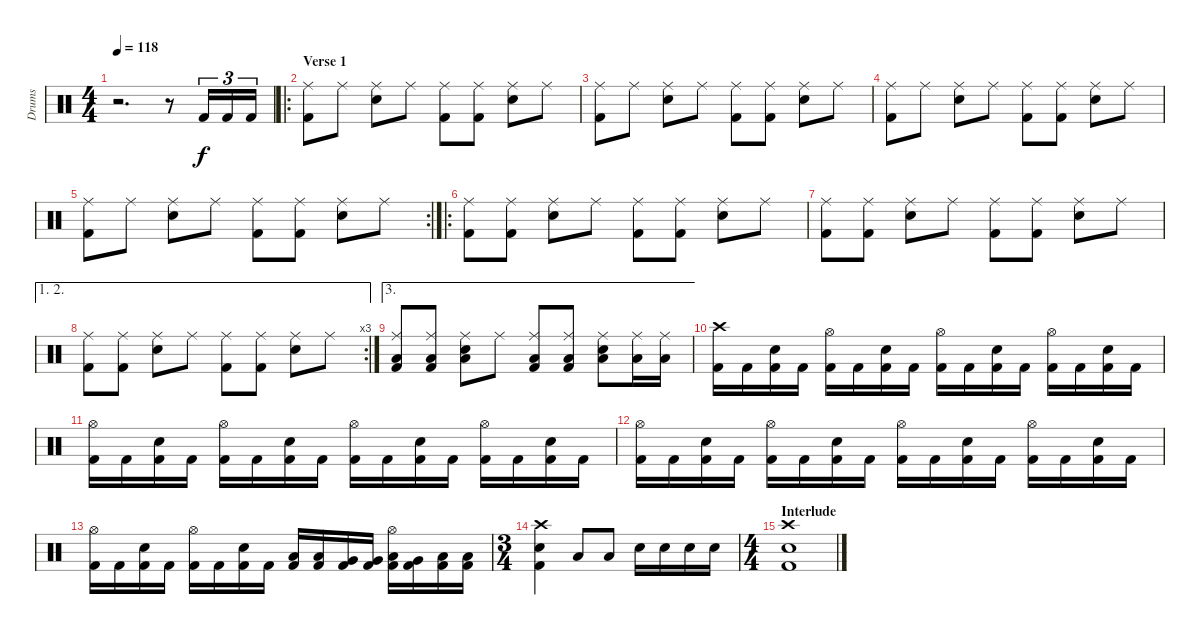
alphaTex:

\track ("Drums" "Drums") {instrument percussion}
\staff {score}
\articulation defaults
\ts (4 4)
\tempo 118
\clef neutral
\ks c
r.2{d dy f} r.8 "Kick (hit) 2".16{tu (3 2)} "Kick (hit) 2".16{tu (3 2)} "Kick (hit) 2".16{tu (3 2)} |
\ro
\section ("" "Verse 1")
("Ride (middle)" "Kick (hit) 2").8 "Ride (middle)".8 ("Ride (middle)" "Electric Snare (hit)").8 "Ride (middle)".8 ("Ride (middle)" "Kick (hit) 2").8 ("Ride (middle)" "Kick (hit) 2").8 ("Ride (middle)" "Electric Snare (hit)").8 "Ride (middle)".8 |
("Ride (middle)" "Kick (hit) 2").8 "Ride (middle)".8 ("Ride (middle)" "Electric Snare (hit)").8 "Ride (middle)".8 ("Ride (middle)" "Kick (hit) 2").8 ("Ride (middle)" "Kick (hit) 2").8 ("Ride (middle)" "Electric Snare (hit)").8 "Ride (middle)".8 |
("Ride (middle)" "Kick (hit) 2").8 "Ride (middle)".8 ("Ride (middle)" "Electric Snare (hit)").8 "Ride (middle)".8 ("Ride (middle)" "Kick (hit) 2").8 ("Ride (middle)" "Kick (hit) 2").8 ("Ride (middle)" "Electric Snare (hit)").8 "Ride (middle)".8 |
\rc 2
("Ride (middle)" "Kick (hit) 2").8 "Ride (middle)".8 ("Ride (middle)" "Electric Snare (hit)").8 "Ride (middle)".8 ("Ride (middle)" "Kick (hit) 2").8 ("Ride (middle)" "Kick (hit) 2").8 ("Ride (middle)" "Electric Snare (hit)").8 "Ride (middle)".8 |
\ro
("Ride (middle)" "Kick (hit) 2").8 ("Ride (middle)" "Kick (hit) 2").8 ("Ride (middle)" "Electric Snare (hit)").8 "Ride (middle)".8 ("Ride (middle)" "Kick (hit) 2").8 ("Ride (middle)" "Kick (hit) 2").8 ("Ride (middle)" "Electric Snare (hit)").8 "Ride (middle)".8 |
("Ride (middle)" "Kick (hit) 2").8 ("Ride (middle)" "Kick (hit) 2").8 ("Ride (middle)" "Electric Snare (hit)").8 "Ride (middle)".8 ("Ride (middle)" "Kick (hit) 2").8 ("Ride (middle)" "Kick (hit) 2").8 ("Ride (middle)" "Electric Snare (hit)").8 "Ride (middle)".8 |
\ae (1 2)
\rc 3
("Ride (middle)" "Kick (hit) 2").8 ("Ride (middle)" "Kick (hit) 2").8 ("Ride (middle)" "Electric Snare (hit)").8 "Ride (middle)".8 ("Ride (middle)" "Kick (hit) 2").8 ("Ride (middle)" "Kick (hit) 2").8 ("Ride (middle)" "Electric Snare (hit)").8 "Ride (middle)".8 |
\ae 3
("Ride (middle)" "Low Tom (hit)" "Kick (hit) 2").8 ("Ride (middle)" "Low Tom (hit)" "Kick (hit) 2").8 ("Ride (middle)" "Low Floor Tom (hit)" "Electric Snare (hit)").8 "Ride (middle)".8 ("Ride (middle)" "Low Tom (hit)" "Kick (hit) 2").8 ("Ride (middle)" "Low Tom (hit)" "Kick (hit) 2").8 ("Ride (middle)" "Low Floor Tom (hit)" "Electric Snare (hit)").8 ("Ride (middle)" "Low Floor Tom (hit)").16 ("Ride (middle)" "Low Floor Tom (hit)").16 |
("Kick (hit) 2" "Crash high (hit)").16 "Kick (hit) 2".16 ("Kick (hit) 2" "Electric Snare (hit)").16 "Kick (hit) 2".16 ("Kick (hit) 2" "Hi-Hat (open)").16 "Kick (hit) 2".16 ("Kick (hit) 2" "Electric Snare (hit)").16 "Kick (hit) 2".16 ("Kick (hit) 2" "Hi-Hat (open)").16 "Kick (hit) 2".16 ("Kick (hit) 2" "Electric Snare (hit)").16 "Kick (hit) 2".16 ("Kick (hit) 2" "Hi-Hat (open)").16 "Kick (hit) 2".16 ("Kick (hit) 2" "Electric Snare (hit)").16 "Kick (hit) 2".16 |
("Kick (hit) 2" "Hi-Hat (open)").16 "Kick (hit) 2".16 ("Kick (hit) 2" "Electric Snare (hit)").16 "Kick (hit) 2".16 ("Kick (hit) 2" "Hi-Hat (open)").16 "Kick (hit) 2".16 ("Kick (hit) 2" "Electric Snare (hit)").16 "Kick (hit) 2".16 ("Kick (hit) 2" "Hi-Hat (open)").16 "Kick (hit) 2".16 ("Kick (hit) 2" "Electric Snare (hit)").16 "Kick (hit) 2".16 ("Kick (hit) 2" "Hi-Hat (open)").16 "Kick (hit) 2".16 ("Kick (hit) 2" "Electric Snare (hit)").16 "Kick (hit) 2".16 |
("Kick (hit) 2" "Hi-Hat (open)").16 "Kick (hit) 2".16 ("Kick (hit) 2" "Electric Snare (hit)").16 "Kick (hit) 2".16 ("Kick (hit) 2" "Hi-Hat (open)").16 "Kick (hit) 2".16 ("Kick (hit) 2" "Electric Snare (hit)").16 "Kick (hit) 2".16 ("Kick (hit) 2" "Hi-Hat (open)").16 "Kick (hit) 2".16 ("Kick (hit) 2" "Electric Snare (hit)").16 "Kick (hit) 2".16 ("Kick (hit) 2" "Hi-Hat (open)").16 "Kick (hit) 2".16 ("Kick (hit) 2" "Electric Snare (hit)").16 "Kick (hit) 2".16 |
("Kick (hit) 2" "Hi-Hat (open)").16 "Kick (hit) 2".16 ("Kick (hit) 2" "Electric Snare (hit)").16 "Kick (hit) 2".16 ("Kick (hit) 2" "Hi-Hat (open)").16 "Kick (hit) 2".16 ("Kick (hit) 2" "Electric Snare (hit)").16 "Kick (hit) 2".16 ("Kick (hit) 2" "Low Floor Tom (hit)").16 ("Kick (hit) 2" "Low Floor Tom (hit)").16 ("Kick (hit) 2" "Very Low Tom (hit)").16 ("Kick (hit) 2" "Very Low Tom (hit)").16 ("Kick (hit) 2" "Low Floor Tom (hit)" "Hi-Hat (open)").16 ("Kick (hit) 2" "Very Low Tom (hit)").16 ("Kick (hit) 2" "Low Floor Tom (hit)").16 ("Kick (hit) 2" "Low Floor Tom (hit)").16 |
\ts (3 4)
("Crash high (hit)" "Electric Snare (hit)" "Kick (hit) 2").4 "Low Floor Tom (hit)".8 "Low Floor Tom (hit)".8 "Electric Snare (hit)".16 "Electric Snare (hit)".16 "Electric Snare (hit)".16 "Electric Snare (hit)".16 |
\ts (4 4)
\section ("" "Interlude")
("Crash high (hit)" "Kick (hit) 2" "Electric Snare (hit)").1
